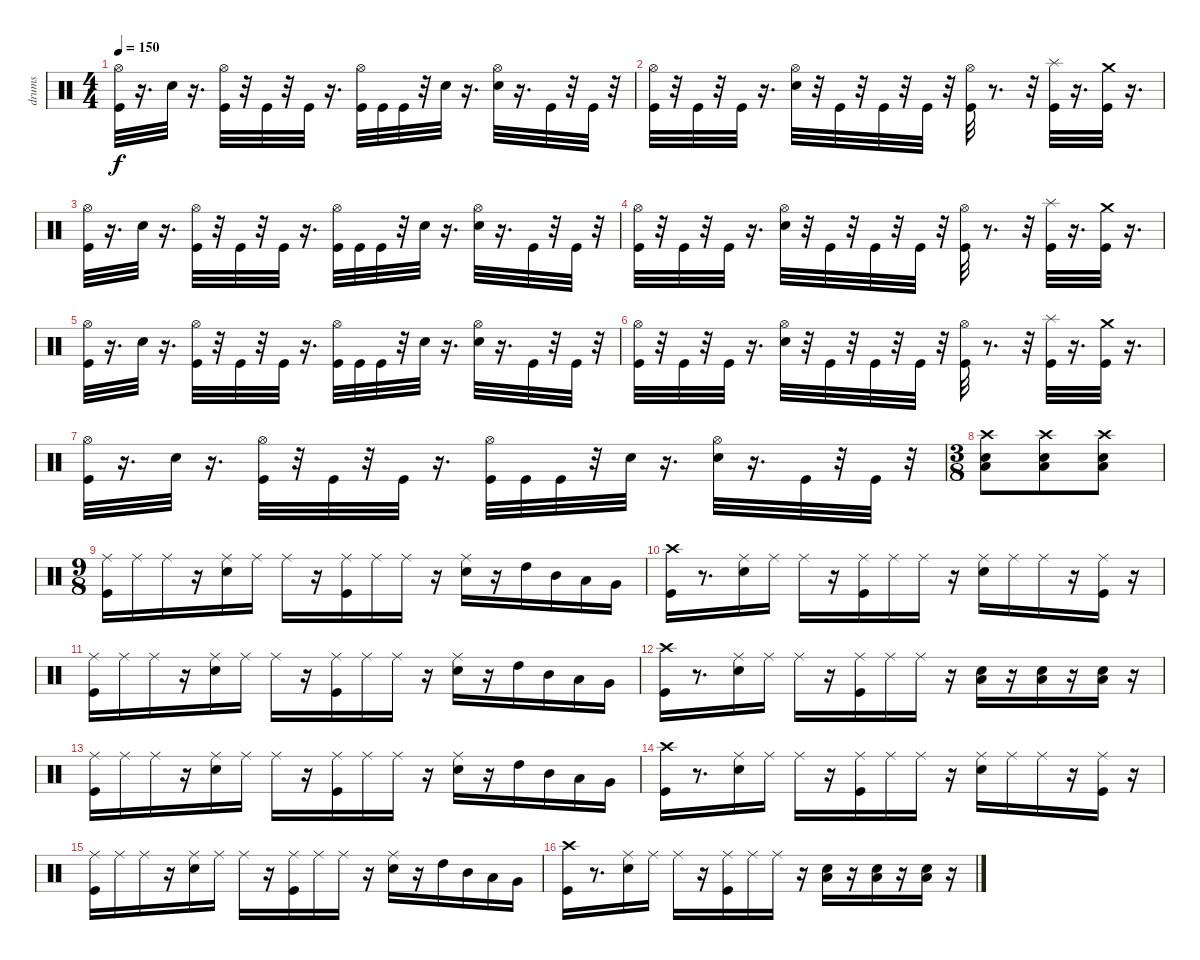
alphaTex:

\track ("drums" "drums") {instrument percussion}
\staff {score}
\articulation defaults
\ts (4 4)
\tempo 150
\clef neutral
\ks c
("Hi-Hat (open)" "Kick (hit)").32{dy f} r.16{d} "Electric Snare (hit)".32 r.16{d} ("Hi-Hat (open)" "Kick (hit)").32 r.32 "Kick (hit)".32 r.32 "Kick (hit)".32 r.16{d} ("Hi-Hat (open)" "Kick (hit)").32 "Kick (hit)".32 "Kick (hit)".32 r.32 "Electric Snare (hit)".32 r.16{d} ("Hi-Hat (open)" "Electric Snare (hit)").32 r.16{d} "Kick (hit)".32 r.32 "Kick (hit)".32 r.32 |
("Hi-Hat (open)" "Kick (hit)").32 r.32 "Kick (hit)".32 r.32 "Kick (hit)".32 r.16{d} ("Hi-Hat (open)" "Electric Snare (hit)").32 r.32 "Kick (hit)".32 r.32 "Kick (hit)".32 r.32 "Kick (hit)".32 r.32 ("Hi-Hat (open)" "Kick (hit)").32 r.8{d} r.32 ("Splash (hit)" "Kick (hit)").32 r.16{d} ("Crash medium (hit)" "Kick (hit)").32 r.16{d} |
("Hi-Hat (open)" "Kick (hit)").32 r.16{d} "Electric Snare (hit)".32 r.16{d} ("Hi-Hat (open)" "Kick (hit)").32 r.32 "Kick (hit)".32 r.32 "Kick (hit)".32 r.16{d} ("Hi-Hat (open)" "Kick (hit)").32 "Kick (hit)".32 "Kick (hit)".32 r.32 "Electric Snare (hit)".32 r.16{d} ("Hi-Hat (open)" "Electric Snare (hit)").32 r.16{d} "Kick (hit)".32 r.32 "Kick (hit)".32 r.32 |
("Hi-Hat (open)" "Kick (hit)").32 r.32 "Kick (hit)".32 r.32 "Kick (hit)".32 r.16{d} ("Hi-Hat (open)" "Electric Snare (hit)").32 r.32 "Kick (hit)".32 r.32 "Kick (hit)".32 r.32 "Kick (hit)".32 r.32 ("Hi-Hat (open)" "Kick (hit)").32 r.8{d} r.32 ("Splash (hit)" "Kick (hit)").32 r.16{d} ("Crash medium (hit)" "Kick (hit)").32 r.16{d} |
("Hi-Hat (open)" "Kick (hit)").32 r.16{d} "Electric Snare (hit)".32 r.16{d} ("Hi-Hat (open)" "Kick (hit)").32 r.32 "Kick (hit)".32 r.32 "Kick (hit)".32 r.16{d} ("Hi-Hat (open)" "Kick (hit)").32 "Kick (hit)".32 "Kick (hit)".32 r.32 "Electric Snare (hit)".32 r.16{d} ("Hi-Hat (open)" "Electric Snare (hit)").32 r.16{d} "Kick (hit)".32 r.32 "Kick (hit)".32 r.32 |
("Hi-Hat (open)" "Kick (hit)").32 r.32 "Kick (hit)".32 r.32 "Kick (hit)".32 r.16{d} ("Hi-Hat (open)" "Electric Snare (hit)").32 r.32 "Kick (hit)".32 r.32 "Kick (hit)".32 r.32 "Kick (hit)".32 r.32 ("Hi-Hat (open)" "Kick (hit)").32 r.8{d} r.32 ("Splash (hit)" "Kick (hit)").32 r.16{d} ("Crash medium (hit)" "Kick (hit)").32 r.16{d} |
("Hi-Hat (open)" "Kick (hit)").32 r.16{d} "Electric Snare (hit)".32 r.16{d} ("Hi-Hat (open)" "Kick (hit)").32 r.32 "Kick (hit)".32 r.32 "Kick (hit)".32 r.16{d} ("Hi-Hat (open)" "Kick (hit)").32 "Kick (hit)".32 "Kick (hit)".32 r.32 "Electric Snare (hit)".32 r.16{d} ("Hi-Hat (open)" "Electric Snare (hit)").32 r.16{d} "Kick (hit)".32 r.32 "Kick (hit)".32 r.32 |
\ts (3 8)
("Crash high (hit)" "Low Floor Tom (hit)" "Electric Snare (hit)").8 ("Crash high (hit)" "Electric Snare (hit)" "Low Floor Tom (hit)").8 ("Crash high (hit)" "Electric Snare (hit)" "Low Floor Tom (hit)").8 |
\ts (9 8)
("Ride (middle)" "Kick (hit)").16 "Ride (middle)".16 "Ride (middle)".16 r.16 ("Ride (middle)" "Electric Snare (hit)").16 "Ride (middle)".16 "Ride (middle)".16 r.16 ("Ride (middle)" "Kick (hit)").16 "Ride (middle)".16 "Ride (middle)".16 r.16 ("Ride (middle)" "Electric Snare (hit)").16 r.16 "High Tom (hit)".16 "Mid Tom (hit)".16 "Low Tom (hit)".16 "Very Low Tom (hit)".16 |
("Crash high (hit)" "Kick (hit)").16 r.8{d} ("Ride (middle)" "Electric Snare (hit)").16 "Ride (middle)".16 "Ride (middle)".16 r.16 ("Ride (middle)" "Kick (hit)").16 "Ride (middle)".16 "Ride (middle)".16 r.16 ("Ride (middle)" "Electric Snare (hit)").16 "Ride (middle)".16 "Ride (middle)".16 r.16 ("Ride (middle)" "Kick (hit)").16 r.16 |
("Ride (middle)" "Kick (hit)").16 "Ride (middle)".16 "Ride (middle)".16 r.16 ("Ride (middle)" "Electric Snare (hit)").16 "Ride (middle)".16 "Ride (middle)".16 r.16 ("Ride (middle)" "Kick (hit)").16 "Ride (middle)".16 "Ride (middle)".16 r.16 ("Ride (middle)" "Electric Snare (hit)").16 r.16 "High Tom (hit)".16 "Mid Tom (hit)".16 "Low Tom (hit)".16 "Very Low Tom (hit)".16 |
("Crash high (hit)" "Kick (hit)").16 r.8{d} ("Ride (middle)" "Electric Snare (hit)").16 "Ride (middle)".16 "Ride (middle)".16 r.16 ("Ride (middle)" "Kick (hit)").16 "Ride (middle)".16 "Ride (middle)".16 r.16 ("Low Floor Tom (hit)" "Electric Snare (hit)").16 r.16 ("Low Floor Tom (hit)" "Electric Snare (hit)").16 r.16 ("Low Floor Tom (hit)" "Electric Snare (hit)").16 r.16 |
("Ride (middle)" "Kick (hit)").16 "Ride (middle)".16 "Ride (middle)".16 r.16 ("Ride (middle)" "Electric Snare (hit)").16 "Ride (middle)".16 "Ride (middle)".16 r.16 ("Ride (middle)" "Kick (hit)").16 "Ride (middle)".16 "Ride (middle)".16 r.16 ("Ride (middle)" "Electric Snare (hit)").16 r.16 "High Tom (hit)".16 "Mid Tom (hit)".16 "Low Tom (hit)".16 "Very Low Tom (hit)".16 |
("Crash high (hit)" "Kick (hit)").16 r.8{d} ("Ride (middle)" "Electric Snare (hit)").16 "Ride (middle)".16 "Ride (middle)".16 r.16 ("Ride (middle)" "Kick (hit)").16 "Ride (middle)".16 "Ride (middle)".16 r.16 ("Ride (middle)" "Electric Snare (hit)").16 "Ride (middle)".16 "Ride (middle)".16 r.16 ("Ride (middle)" "Kick (hit)").16 r.16 |
("Ride (middle)" "Kick (hit)").16 "Ride (middle)".16 "Ride (middle)".16 r.16 ("Ride (middle)" "Electric Snare (hit)").16 "Ride (middle)".16 "Ride (middle)".16 r.16 ("Ride (middle)" "Kick (hit)").16 "Ride (middle)".16 "Ride (middle)".16 r.16 ("Ride (middle)" "Electric Snare (hit)").16 r.16 "High Tom (hit)".16 "Mid Tom (hit)".16 "Low Tom (hit)".16 "Very Low Tom (hit)".16 |
("Crash high (hit)" "Kick (hit)").16 r.8{d} ("Ride (middle)" "Electric Snare (hit)").16 "Ride (middle)".16 "Ride (middle)".16 r.16 ("Ride (middle)" "Kick (hit)").16 "Ride (middle)".16 "Ride (middle)".16 r.16 ("Low Floor Tom (hit)" "Electric Snare (hit)").16 r.16 ("Electric Snare (hit)" "Low Floor Tom (hit)").16 r.16 ("Low Floor Tom (hit)" "Electric Snare (hit)").16 r.16
